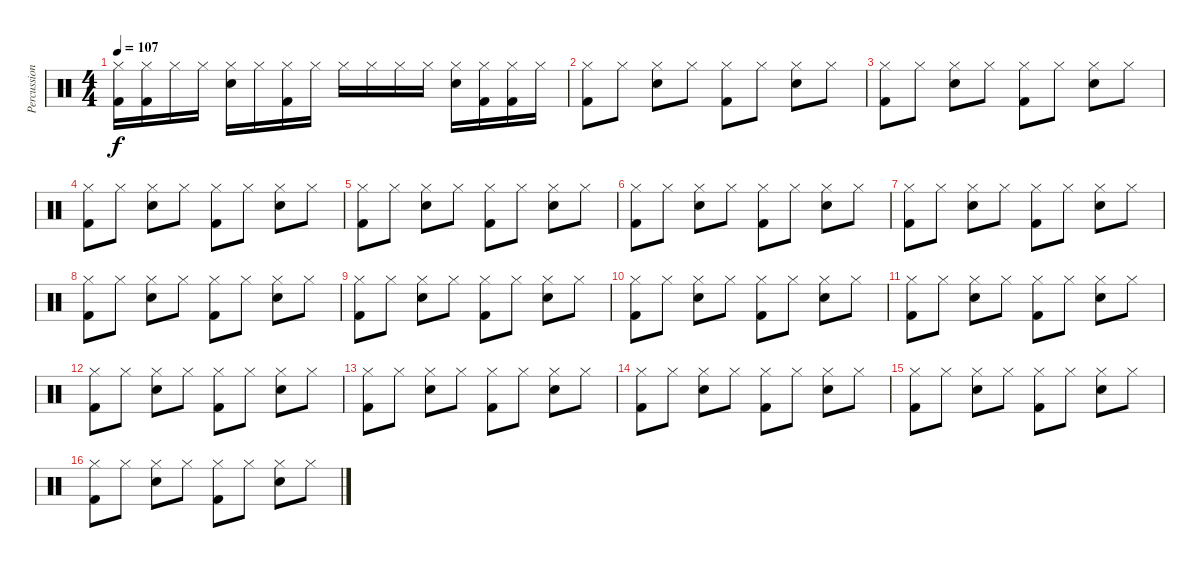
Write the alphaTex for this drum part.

\track ("Percussion" "Percussion") {instrument percussion}
\staff {score}
\articulation defaults
\ts (4 4)
\tempo 107
\clef neutral
\ks c
("Hi-Hat (closed)" "Kick (hit) 2").16{dy f} ("Hi-Hat (closed)" "Kick (hit) 2").16 "Hi-Hat (closed)".16 "Hi-Hat (closed)".16 ("Hi-Hat (closed)" "Snare (hit) 2").16 "Hi-Hat (closed)".16 ("Hi-Hat (closed)" "Kick (hit) 2").16 "Hi-Hat (closed)".16 "Hi-Hat (closed)".16 "Hi-Hat (closed)".16 "Hi-Hat (closed)".16 "Hi-Hat (closed)".16 ("Hi-Hat (closed)" "Snare (hit) 2").16 ("Hi-Hat (closed)" "Kick (hit) 2").16 ("Hi-Hat (closed)" "Kick (hit) 2").16 "Hi-Hat (closed)".16 |
("Hi-Hat (closed)" "Kick (hit) 2").8 "Hi-Hat (closed)".8 ("Hi-Hat (closed)" "Snare (hit) 2").8 "Hi-Hat (closed)".8 ("Hi-Hat (closed)" "Kick (hit) 2").8 "Hi-Hat (closed)".8 ("Hi-Hat (closed)" "Snare (hit) 2").8 "Hi-Hat (closed)".8 |
("Hi-Hat (closed)" "Kick (hit) 2").8 "Hi-Hat (closed)".8 ("Hi-Hat (closed)" "Snare (hit) 2").8 "Hi-Hat (closed)".8 ("Hi-Hat (closed)" "Kick (hit) 2").8 "Hi-Hat (closed)".8 ("Hi-Hat (closed)" "Snare (hit) 2").8 "Hi-Hat (closed)".8 |
("Hi-Hat (closed)" "Kick (hit) 2").8 "Hi-Hat (closed)".8 ("Hi-Hat (closed)" "Snare (hit) 2").8 "Hi-Hat (closed)".8 ("Hi-Hat (closed)" "Kick (hit) 2").8 "Hi-Hat (closed)".8 ("Hi-Hat (closed)" "Snare (hit) 2").8 "Hi-Hat (closed)".8 |
("Hi-Hat (closed)" "Kick (hit) 2").8 "Hi-Hat (closed)".8 ("Hi-Hat (closed)" "Snare (hit) 2").8 "Hi-Hat (closed)".8 ("Hi-Hat (closed)" "Kick (hit) 2").8 "Hi-Hat (closed)".8 ("Hi-Hat (closed)" "Snare (hit) 2").8 "Hi-Hat (closed)".8 |
("Hi-Hat (closed)" "Kick (hit) 2").8 "Hi-Hat (closed)".8 ("Hi-Hat (closed)" "Snare (hit) 2").8 "Hi-Hat (closed)".8 ("Hi-Hat (closed)" "Kick (hit) 2").8 "Hi-Hat (closed)".8 ("Hi-Hat (closed)" "Snare (hit) 2").8 "Hi-Hat (closed)".8 |
("Hi-Hat (closed)" "Kick (hit) 2").8 "Hi-Hat (closed)".8 ("Hi-Hat (closed)" "Snare (hit) 2").8 "Hi-Hat (closed)".8 ("Hi-Hat (closed)" "Kick (hit) 2").8 "Hi-Hat (closed)".8 ("Hi-Hat (closed)" "Snare (hit) 2").8 "Hi-Hat (closed)".8 |
("Hi-Hat (closed)" "Kick (hit) 2").8 "Hi-Hat (closed)".8 ("Hi-Hat (closed)" "Snare (hit) 2").8 "Hi-Hat (closed)".8 ("Hi-Hat (closed)" "Kick (hit) 2").8 "Hi-Hat (closed)".8 ("Hi-Hat (closed)" "Snare (hit) 2").8 "Hi-Hat (closed)".8 |
("Hi-Hat (closed)" "Kick (hit) 2").8 "Hi-Hat (closed)".8 ("Hi-Hat (closed)" "Snare (hit) 2").8 "Hi-Hat (closed)".8 ("Hi-Hat (closed)" "Kick (hit) 2").8 "Hi-Hat (closed)".8 ("Hi-Hat (closed)" "Snare (hit) 2").8 "Hi-Hat (closed)".8 |
("Hi-Hat (closed)" "Kick (hit) 2").8 "Hi-Hat (closed)".8 ("Hi-Hat (closed)" "Snare (hit) 2").8 "Hi-Hat (closed)".8 ("Hi-Hat (closed)" "Kick (hit) 2").8 "Hi-Hat (closed)".8 ("Hi-Hat (closed)" "Snare (hit) 2").8 "Hi-Hat (closed)".8 |
("Hi-Hat (closed)" "Kick (hit) 2").8 "Hi-Hat (closed)".8 ("Hi-Hat (closed)" "Snare (hit) 2").8 "Hi-Hat (closed)".8 ("Hi-Hat (closed)" "Kick (hit) 2").8 "Hi-Hat (closed)".8 ("Hi-Hat (closed)" "Snare (hit) 2").8 "Hi-Hat (closed)".8 |
("Hi-Hat (closed)" "Kick (hit) 2").8 "Hi-Hat (closed)".8 ("Hi-Hat (closed)" "Snare (hit) 2").8 "Hi-Hat (closed)".8 ("Hi-Hat (closed)" "Kick (hit) 2").8 "Hi-Hat (closed)".8 ("Hi-Hat (closed)" "Snare (hit) 2").8 "Hi-Hat (closed)".8 |
("Hi-Hat (closed)" "Kick (hit) 2").8 "Hi-Hat (closed)".8 ("Hi-Hat (closed)" "Snare (hit) 2").8 "Hi-Hat (closed)".8 ("Hi-Hat (closed)" "Kick (hit) 2").8 "Hi-Hat (closed)".8 ("Hi-Hat (closed)" "Snare (hit) 2").8 "Hi-Hat (closed)".8 |
("Hi-Hat (closed)" "Kick (hit) 2").8 "Hi-Hat (closed)".8 ("Hi-Hat (closed)" "Snare (hit) 2").8 "Hi-Hat (closed)".8 ("Hi-Hat (closed)" "Kick (hit) 2").8 "Hi-Hat (closed)".8 ("Hi-Hat (closed)" "Snare (hit) 2").8 "Hi-Hat (closed)".8 |
("Hi-Hat (closed)" "Kick (hit) 2").8 "Hi-Hat (closed)".8 ("Hi-Hat (closed)" "Snare (hit) 2").8 "Hi-Hat (closed)".8 ("Hi-Hat (closed)" "Kick (hit) 2").8 "Hi-Hat (closed)".8 ("Hi-Hat (closed)" "Snare (hit) 2").8 "Hi-Hat (closed)".8 |
("Hi-Hat (closed)" "Kick (hit) 2").8 "Hi-Hat (closed)".8 ("Hi-Hat (closed)" "Snare (hit) 2").8 "Hi-Hat (closed)".8 ("Hi-Hat (closed)" "Kick (hit) 2").8 "Hi-Hat (closed)".8 ("Hi-Hat (closed)" "Snare (hit) 2").8 "Hi-Hat (closed)".8
